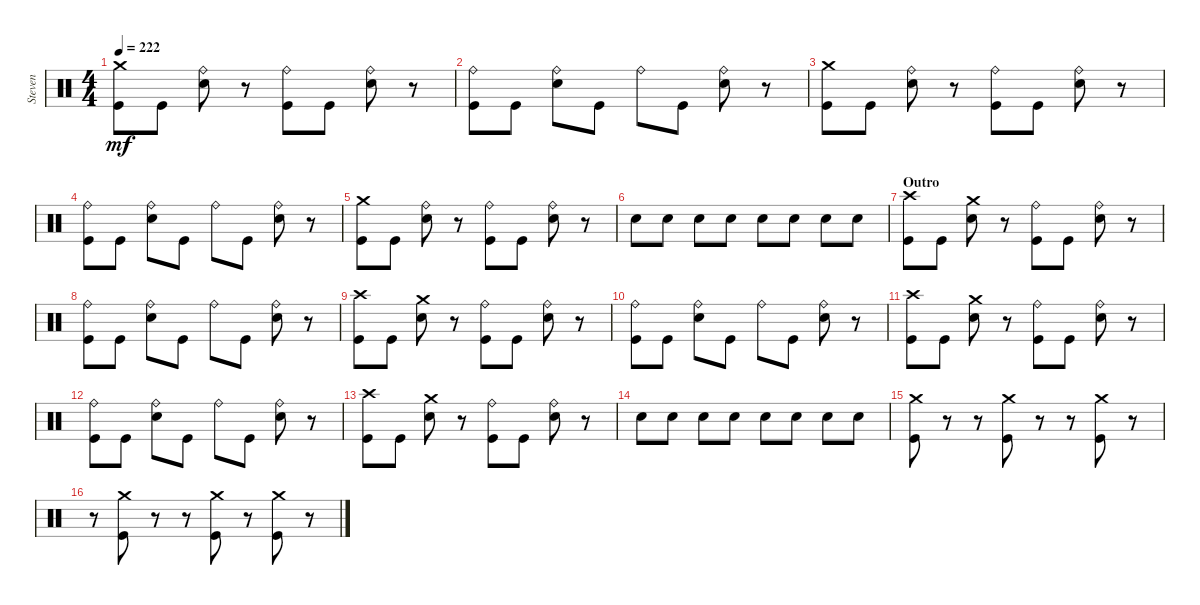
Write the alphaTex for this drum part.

\track ("Steven" "Steven") {instrument percussion}
\staff {score}
\articulation defaults
\ts (4 4)
\tempo 222
\clef neutral
\ks c
("Kick (hit)" "Crash medium (hit)").8{dy mf} "Kick (hit)".8 ("Snare (hit) 2" "Ride (bell)").8 r.8 ("Kick (hit)" "Ride (bell)").8 "Kick (hit)".8 ("Snare (hit) 2" "Ride (bell)").8 r.8 |
("Kick (hit)" "Ride (bell)").8 "Kick (hit)".8 ("Snare (hit) 2" "Ride (bell)").8 "Kick (hit)".8 "Ride (bell)".8 "Kick (hit)".8 ("Snare (hit) 2" "Ride (bell)").8 r.8 |
("Kick (hit)" "Crash medium (hit)").8 "Kick (hit)".8 ("Snare (hit) 2" "Ride (bell)").8 r.8 ("Kick (hit)" "Ride (bell)").8 "Kick (hit)".8 ("Snare (hit) 2" "Ride (bell)").8 r.8 |
("Kick (hit)" "Ride (bell)").8 "Kick (hit)".8 ("Snare (hit) 2" "Ride (bell)").8 "Kick (hit)".8 "Ride (bell)".8 "Kick (hit)".8 ("Snare (hit) 2" "Ride (bell)").8 r.8 |
("Kick (hit)" "Crash medium (hit)").8 "Kick (hit)".8 ("Snare (hit) 2" "Ride (bell)").8 r.8 ("Kick (hit)" "Ride (bell)").8 "Kick (hit)".8 ("Snare (hit) 2" "Ride (bell)").8 r.8 |
"Snare (hit) 2".8 "Snare (hit) 2".8 "Snare (hit) 2".8 "Snare (hit) 2".8 "Snare (hit) 2".8 "Snare (hit) 2".8 "Snare (hit) 2".8 "Snare (hit) 2".8 |
\section ("" "Outro")
("Kick (hit)" "Crash high (hit)").8 "Kick (hit)".8 ("Snare (hit) 2" "Crash medium (hit)").8 r.8 ("Kick (hit)" "Ride (bell)").8 "Kick (hit)".8 ("Snare (hit) 2" "Ride (bell)").8 r.8 |
("Kick (hit)" "Ride (bell)").8 "Kick (hit)".8 ("Snare (hit) 2" "Ride (bell)").8 "Kick (hit)".8 "Ride (bell)".8 "Kick (hit)".8 ("Snare (hit) 2" "Ride (bell)").8 r.8 |
("Kick (hit)" "Crash high (hit)").8 "Kick (hit)".8 ("Snare (hit) 2" "Crash medium (hit)").8 r.8 ("Kick (hit)" "Ride (bell)").8 "Kick (hit)".8 ("Snare (hit) 2" "Ride (bell)").8 r.8 |
("Kick (hit)" "Ride (bell)").8 "Kick (hit)".8 ("Snare (hit) 2" "Ride (bell)").8 "Kick (hit)".8 "Ride (bell)".8 "Kick (hit)".8 ("Snare (hit) 2" "Ride (bell)").8 r.8 |
("Kick (hit)" "Crash high (hit)").8 "Kick (hit)".8 ("Snare (hit) 2" "Crash medium (hit)").8 r.8 ("Kick (hit)" "Ride (bell)").8 "Kick (hit)".8 ("Snare (hit) 2" "Ride (bell)").8 r.8 |
("Kick (hit)" "Ride (bell)").8 "Kick (hit)".8 ("Snare (hit) 2" "Ride (bell)").8 "Kick (hit)".8 "Ride (bell)".8 "Kick (hit)".8 ("Snare (hit) 2" "Ride (bell)").8 r.8 |
("Kick (hit)" "Crash high (hit)").8 "Kick (hit)".8 ("Snare (hit) 2" "Crash medium (hit)").8 r.8 ("Kick (hit)" "Ride (bell)").8 "Kick (hit)".8 ("Snare (hit) 2" "Ride (bell)").8 r.8 |
"Snare (hit) 2".8 "Snare (hit) 2".8 "Snare (hit) 2".8 "Snare (hit) 2".8 "Snare (hit) 2".8 "Snare (hit) 2".8 "Snare (hit) 2".8 "Snare (hit) 2".8 |
("Kick (hit)" "Crash medium (hit)").8 r.8 r.8 ("Kick (hit)" "Crash medium (hit)").8 r.8 r.8 ("Kick (hit)" "Crash medium (hit)").8 r.8 |
r.8 ("Kick (hit)" "Crash medium (hit)").8 r.8 r.8 ("Kick (hit)" "Crash medium (hit)").8 r.8 ("Kick (hit)" "Crash medium (hit)").8 r.8
